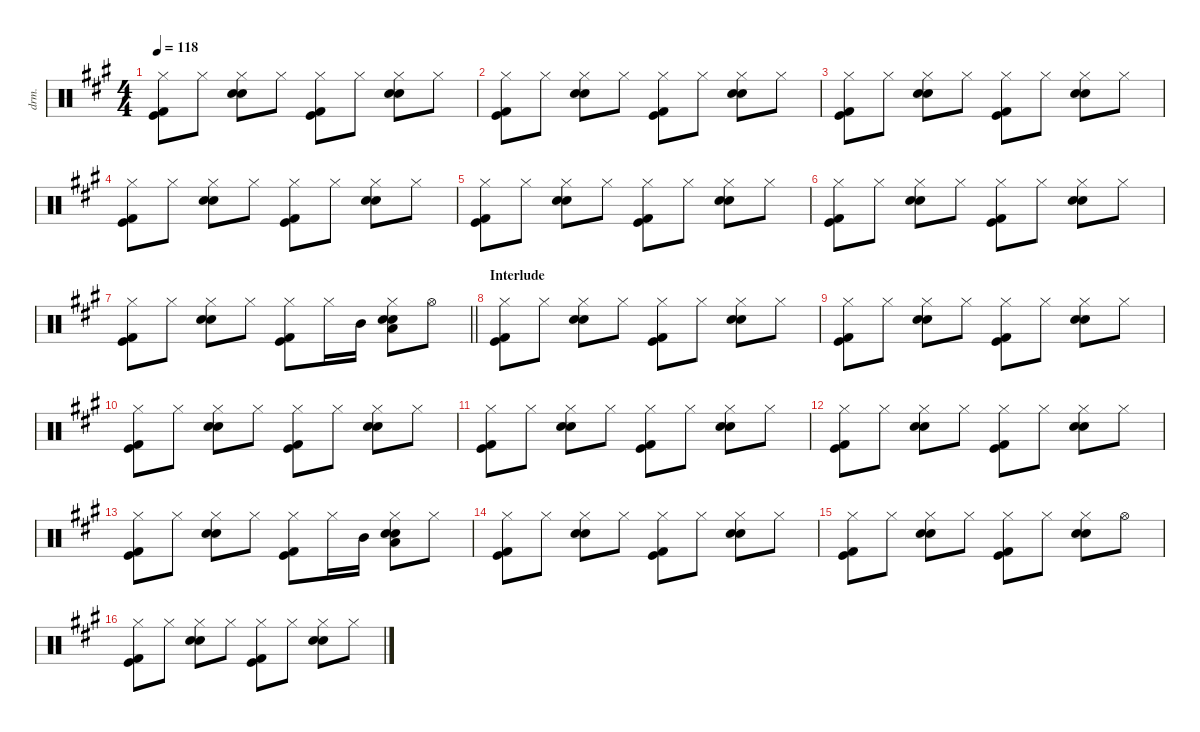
\defaultSystemsLayout 4
\hideDynamics
\bracketExtendMode nobrackets
\otherSystemsTrackNameOrientation horizontal
\track ("drums" "drm.") {instrument percussion}
\staff {score}
\articulation defaults
\ts (4 4)
\tempo 118
\clef neutral
\ks f#minor
("Hi-Hat (closed)"{acc forcenatural} "Kick (hit)"{acc forcenatural} "Kick (hit) 2"{acc forcenatural}).8{dy f} "Hi-Hat (closed)"{acc forcenatural}.8{dy mf} ("Hi-Hat (closed)"{acc forcenatural} "Hand Clap (hit)"{acc forcenatural} "Snare (hit) 2"{acc forcenatural}).8{dy f} "Hi-Hat (closed)"{acc forcenatural}.8{dy mf} ("Hi-Hat (closed)"{acc forcenatural} "Kick (hit)"{acc forcenatural} "Kick (hit) 2"{acc forcenatural}).8{dy f} "Hi-Hat (closed)"{acc forcenatural}.8{dy mf} ("Hi-Hat (closed)"{acc forcenatural} "Hand Clap (hit)"{acc forcenatural} "Snare (hit) 2"{acc forcenatural}).8{dy f} "Hi-Hat (closed)"{acc forcenatural}.8{dy mf} |
("Hi-Hat (closed)"{acc forcenatural} "Kick (hit)"{acc forcenatural} "Kick (hit) 2"{acc forcenatural}).8{dy f} "Hi-Hat (closed)"{acc forcenatural}.8{dy mf} ("Hi-Hat (closed)"{acc forcenatural} "Hand Clap (hit)"{acc forcenatural} "Snare (hit) 2"{acc forcenatural}).8{dy f} "Hi-Hat (closed)"{acc forcenatural}.8{dy mf} ("Hi-Hat (closed)"{acc forcenatural} "Kick (hit)"{acc forcenatural} "Kick (hit) 2"{acc forcenatural}).8{dy f} "Hi-Hat (closed)"{acc forcenatural}.8{dy mf} ("Hi-Hat (closed)"{acc forcenatural} "Hand Clap (hit)"{acc forcenatural} "Snare (hit) 2"{acc forcenatural}).8{dy f} "Hi-Hat (closed)"{acc forcenatural}.8{dy mf} |
("Hi-Hat (closed)"{acc forcenatural} "Kick (hit)"{acc forcenatural} "Kick (hit) 2"{acc forcenatural}).8{dy f} "Hi-Hat (closed)"{acc forcenatural}.8{dy mf} ("Hi-Hat (closed)"{acc forcenatural} "Hand Clap (hit)"{acc forcenatural} "Snare (hit) 2"{acc forcenatural}).8{dy f} "Hi-Hat (closed)"{acc forcenatural}.8{dy mf} ("Hi-Hat (closed)"{acc forcenatural} "Kick (hit)"{acc forcenatural} "Kick (hit) 2"{acc forcenatural}).8{dy f} "Hi-Hat (closed)"{acc forcenatural}.8{dy mf} ("Hi-Hat (closed)"{acc forcenatural} "Hand Clap (hit)"{acc forcenatural} "Snare (hit) 2"{acc forcenatural}).8{dy f} "Hi-Hat (closed)"{acc forcenatural}.8{dy mf} |
("Hi-Hat (closed)"{acc forcenatural} "Kick (hit)"{acc forcenatural} "Kick (hit) 2"{acc forcenatural}).8{dy f} "Hi-Hat (closed)"{acc forcenatural}.8{dy mf} ("Hi-Hat (closed)"{acc forcenatural} "Hand Clap (hit)"{acc forcenatural} "Snare (hit) 2"{acc forcenatural}).8{dy f} "Hi-Hat (closed)"{acc forcenatural}.8{dy mf} ("Hi-Hat (closed)"{acc forcenatural} "Kick (hit)"{acc forcenatural} "Kick (hit) 2"{acc forcenatural}).8{dy f} "Hi-Hat (closed)"{acc forcenatural}.8{dy mf} ("Hi-Hat (closed)"{acc forcenatural} "Hand Clap (hit)"{acc forcenatural} "Snare (hit) 2"{acc forcenatural}).8{dy f} "Hi-Hat (closed)"{acc forcenatural}.8{dy mf} |
("Hi-Hat (closed)"{acc forcenatural} "Kick (hit)"{acc forcenatural} "Kick (hit) 2"{acc forcenatural}).8{dy f} "Hi-Hat (closed)"{acc forcenatural}.8{dy mf} ("Hi-Hat (closed)"{acc forcenatural} "Hand Clap (hit)"{acc forcenatural} "Snare (hit) 2"{acc forcenatural}).8{dy f} "Hi-Hat (closed)"{acc forcenatural}.8{dy mf} ("Hi-Hat (closed)"{acc forcenatural} "Kick (hit)"{acc forcenatural} "Kick (hit) 2"{acc forcenatural}).8{dy f} "Hi-Hat (closed)"{acc forcenatural}.8{dy mf} ("Hi-Hat (closed)"{acc forcenatural} "Hand Clap (hit)"{acc forcenatural} "Snare (hit) 2"{acc forcenatural}).8{dy f} "Hi-Hat (closed)"{acc forcenatural}.8{dy mf} |
("Hi-Hat (closed)"{acc forcenatural} "Kick (hit)"{acc forcenatural} "Kick (hit) 2"{acc forcenatural}).8{dy f} "Hi-Hat (closed)"{acc forcenatural}.8{dy mf} ("Hi-Hat (closed)"{acc forcenatural} "Hand Clap (hit)"{acc forcenatural} "Snare (hit) 2"{acc forcenatural}).8{dy f} "Hi-Hat (closed)"{acc forcenatural}.8{dy mf} ("Hi-Hat (closed)"{acc forcenatural} "Kick (hit)"{acc forcenatural} "Kick (hit) 2"{acc forcenatural}).8{dy f} "Hi-Hat (closed)"{acc forcenatural}.8{dy mf} ("Hi-Hat (closed)"{acc forcenatural} "Hand Clap (hit)"{acc forcenatural} "Snare (hit) 2"{acc forcenatural}).8{dy f} "Hi-Hat (closed)"{acc forcenatural}.8{dy mf} |
\barLineRight lightlight
("Hi-Hat (closed)"{acc forcenatural} "Kick (hit)"{acc forcenatural} "Kick (hit) 2"{acc forcenatural}).8{dy f} "Hi-Hat (closed)"{acc forcenatural}.8{dy mf} ("Hi-Hat (closed)"{acc forcenatural} "Hand Clap (hit)"{acc forcenatural} "Snare (hit) 2"{acc forcenatural}).8{dy f} "Hi-Hat (closed)"{acc forcenatural}.8{dy mf} ("Hi-Hat (closed)"{acc forcenatural} "Kick (hit)"{acc forcenatural} "Kick (hit) 2"{acc forcenatural}).8{dy f} "Hi-Hat (closed)"{acc forcenatural}.16{dy mf} "Mid Tom (hit)"{acc forcenatural}.16 ("Hi-Hat (closed)"{acc forcenatural} "Hand Clap (hit)"{acc forcenatural} "Snare (hit) 2"{acc forcenatural} "Low Tom (hit)"{acc forcenatural}).8{dy f} "Hi-Hat (open)"{acc forcenatural}.8{dy mf} |
\section ("" "Interlude")
("Hi-Hat (closed)"{acc forcenatural} "Kick (hit)"{acc forcenatural} "Kick (hit) 2"{acc forcenatural}).8{dy f} "Hi-Hat (closed)"{acc forcenatural}.8{dy mf} ("Hi-Hat (closed)"{acc forcenatural} "Hand Clap (hit)"{acc forcenatural} "Snare (hit) 2"{acc forcenatural}).8{dy f} "Hi-Hat (closed)"{acc forcenatural}.8{dy mf} ("Hi-Hat (closed)"{acc forcenatural} "Kick (hit)"{acc forcenatural} "Kick (hit) 2"{acc forcenatural}).8{dy f} "Hi-Hat (closed)"{acc forcenatural}.8{dy mf} ("Hi-Hat (closed)"{acc forcenatural} "Hand Clap (hit)"{acc forcenatural} "Snare (hit) 2"{acc forcenatural}).8{dy f} "Hi-Hat (closed)"{acc forcenatural}.8{dy mf} |
("Hi-Hat (closed)"{acc forcenatural} "Kick (hit)"{acc forcenatural} "Kick (hit) 2"{acc forcenatural}).8{dy f} "Hi-Hat (closed)"{acc forcenatural}.8{dy mf} ("Hi-Hat (closed)"{acc forcenatural} "Hand Clap (hit)"{acc forcenatural} "Snare (hit) 2"{acc forcenatural}).8{dy f} "Hi-Hat (closed)"{acc forcenatural}.8{dy mf} ("Hi-Hat (closed)"{acc forcenatural} "Kick (hit)"{acc forcenatural} "Kick (hit) 2"{acc forcenatural}).8{dy f} "Hi-Hat (closed)"{acc forcenatural}.8{dy mf} ("Hi-Hat (closed)"{acc forcenatural} "Hand Clap (hit)"{acc forcenatural} "Snare (hit) 2"{acc forcenatural}).8{dy f} "Hi-Hat (closed)"{acc forcenatural}.8{dy mf} |
("Hi-Hat (closed)"{acc forcenatural} "Kick (hit)"{acc forcenatural} "Kick (hit) 2"{acc forcenatural}).8{dy f} "Hi-Hat (closed)"{acc forcenatural}.8{dy mf} ("Hi-Hat (closed)"{acc forcenatural} "Hand Clap (hit)"{acc forcenatural} "Snare (hit) 2"{acc forcenatural}).8{dy f} "Hi-Hat (closed)"{acc forcenatural}.8{dy mf} ("Hi-Hat (closed)"{acc forcenatural} "Kick (hit)"{acc forcenatural} "Kick (hit) 2"{acc forcenatural}).8{dy f} "Hi-Hat (closed)"{acc forcenatural}.8{dy mf} ("Hi-Hat (closed)"{acc forcenatural} "Hand Clap (hit)"{acc forcenatural} "Snare (hit) 2"{acc forcenatural}).8{dy f} "Hi-Hat (closed)"{acc forcenatural}.8{dy mf} |
("Hi-Hat (closed)"{acc forcenatural} "Kick (hit)"{acc forcenatural} "Kick (hit) 2"{acc forcenatural}).8{dy f} "Hi-Hat (closed)"{acc forcenatural}.8{dy mf} ("Hi-Hat (closed)"{acc forcenatural} "Hand Clap (hit)"{acc forcenatural} "Snare (hit) 2"{acc forcenatural}).8{dy f} "Hi-Hat (closed)"{acc forcenatural}.8{dy mf} ("Hi-Hat (closed)"{acc forcenatural} "Kick (hit)"{acc forcenatural} "Kick (hit) 2"{acc forcenatural}).8{dy f} "Hi-Hat (closed)"{acc forcenatural}.8{dy mf} ("Hi-Hat (closed)"{acc forcenatural} "Hand Clap (hit)"{acc forcenatural} "Snare (hit) 2"{acc forcenatural}).8{dy f} "Hi-Hat (closed)"{acc forcenatural}.8{dy mf} |
("Hi-Hat (closed)"{acc forcenatural} "Kick (hit)"{acc forcenatural} "Kick (hit) 2"{acc forcenatural}).8{dy f} "Hi-Hat (closed)"{acc forcenatural}.8{dy mf} ("Hi-Hat (closed)"{acc forcenatural} "Hand Clap (hit)"{acc forcenatural} "Snare (hit) 2"{acc forcenatural}).8{dy f} "Hi-Hat (closed)"{acc forcenatural}.8{dy mf} ("Hi-Hat (closed)"{acc forcenatural} "Kick (hit)"{acc forcenatural} "Kick (hit) 2"{acc forcenatural}).8{dy f} "Hi-Hat (closed)"{acc forcenatural}.8{dy mf} ("Hi-Hat (closed)"{acc forcenatural} "Hand Clap (hit)"{acc forcenatural} "Snare (hit) 2"{acc forcenatural}).8{dy f} "Hi-Hat (closed)"{acc forcenatural}.8{dy mf} |
("Hi-Hat (closed)"{acc forcenatural} "Kick (hit)"{acc forcenatural} "Kick (hit) 2"{acc forcenatural}).8{dy f} "Hi-Hat (closed)"{acc forcenatural}.8{dy mf} ("Hi-Hat (closed)"{acc forcenatural} "Hand Clap (hit)"{acc forcenatural} "Snare (hit) 2"{acc forcenatural}).8{dy f} "Hi-Hat (closed)"{acc forcenatural}.8{dy mf} ("Hi-Hat (closed)"{acc forcenatural} "Kick (hit)"{acc forcenatural} "Kick (hit) 2"{acc forcenatural}).8{dy f} "Hi-Hat (closed)"{acc forcenatural}.16{dy mf} "Mid Tom (hit)"{acc forcenatural}.16 ("Hi-Hat (closed)"{acc forcenatural} "Hand Clap (hit)"{acc forcenatural} "Snare (hit) 2"{acc forcenatural} "Low Tom (hit)"{acc forcenatural}).8{dy f} "Hi-Hat (closed)"{acc forcenatural}.8{dy mf} |
("Hi-Hat (closed)"{acc forcenatural} "Kick (hit)"{acc forcenatural} "Kick (hit) 2"{acc forcenatural}).8{dy f} "Hi-Hat (closed)"{acc forcenatural}.8{dy mf} ("Hi-Hat (closed)"{acc forcenatural} "Hand Clap (hit)"{acc forcenatural} "Snare (hit) 2"{acc forcenatural}).8{dy f} "Hi-Hat (closed)"{acc forcenatural}.8{dy mf} ("Hi-Hat (closed)"{acc forcenatural} "Kick (hit)"{acc forcenatural} "Kick (hit) 2"{acc forcenatural}).8{dy f} "Hi-Hat (closed)"{acc forcenatural}.8{dy mf} ("Hi-Hat (closed)"{acc forcenatural} "Hand Clap (hit)"{acc forcenatural} "Snare (hit) 2"{acc forcenatural}).8{dy f} "Hi-Hat (closed)"{acc forcenatural}.8{dy mf} |
("Hi-Hat (closed)"{acc forcenatural} "Kick (hit)"{acc forcenatural} "Kick (hit) 2"{acc forcenatural}).8{dy f} "Hi-Hat (closed)"{acc forcenatural}.8{dy mf} ("Hi-Hat (closed)"{acc forcenatural} "Hand Clap (hit)"{acc forcenatural} "Snare (hit) 2"{acc forcenatural}).8{dy f} "Hi-Hat (closed)"{acc forcenatural}.8{dy mf} ("Hi-Hat (closed)"{acc forcenatural} "Kick (hit)"{acc forcenatural} "Kick (hit) 2"{acc forcenatural}).8{dy f} "Hi-Hat (closed)"{acc forcenatural}.8{dy mf} ("Hi-Hat (closed)"{acc forcenatural} "Hand Clap (hit)"{acc forcenatural} "Snare (hit) 2"{acc forcenatural}).8{dy f} "Hi-Hat (open)"{acc forcenatural}.8 |
("Hi-Hat (closed)"{acc forcenatural} "Kick (hit)"{acc forcenatural} "Kick (hit) 2"{acc forcenatural}).8 "Hi-Hat (closed)"{acc forcenatural}.8{dy mf} ("Hi-Hat (closed)"{acc forcenatural} "Hand Clap (hit)"{acc forcenatural} "Snare (hit) 2"{acc forcenatural}).8{dy f} "Hi-Hat (closed)"{acc forcenatural}.8{dy mf} ("Hi-Hat (closed)"{acc forcenatural} "Kick (hit)"{acc forcenatural} "Kick (hit) 2"{acc forcenatural}).8{dy f} "Hi-Hat (closed)"{acc forcenatural}.8{dy mf} ("Hi-Hat (closed)"{acc forcenatural} "Hand Clap (hit)"{acc forcenatural} "Snare (hit) 2"{acc forcenatural}).8{dy f} "Hi-Hat (closed)"{acc forcenatural}.8{dy mf}
